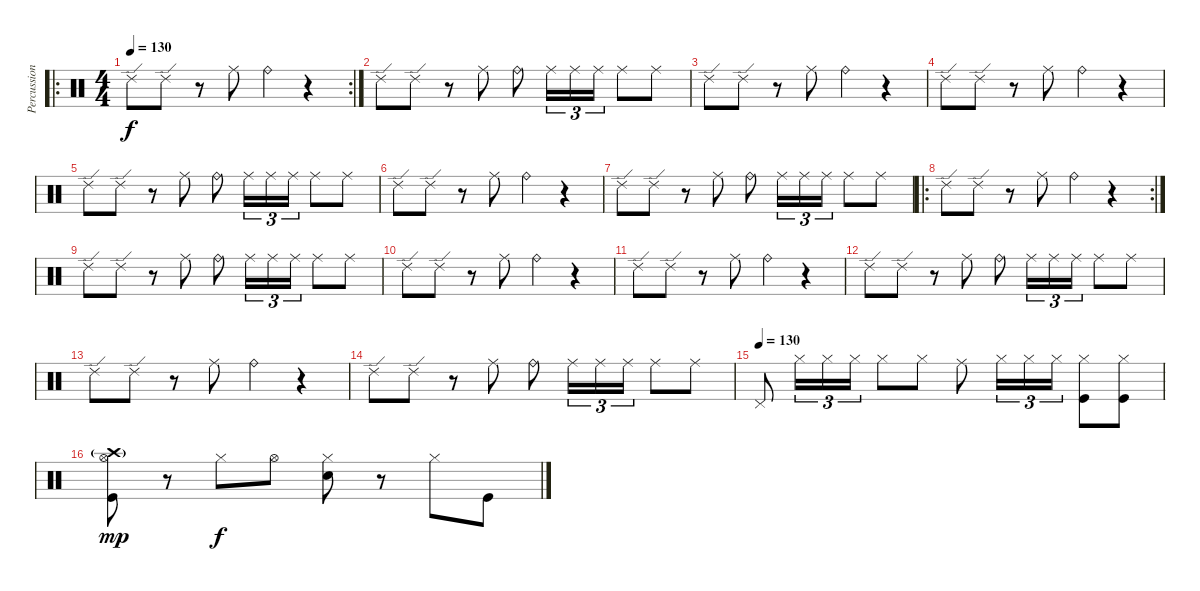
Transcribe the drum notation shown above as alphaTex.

\track ("Percussion" "Percussion") {instrument percussion}
\staff {score}
\articulation defaults
\ro
\rc 2
\ts (4 4)
\tempo 130
\tempo 115
\tempo 130
\clef neutral
\ks c "Ride (edge) 2".8{dy f} "Ride (edge) 2".8
r.8 "Ride (middle)".8 "Ride (bell)".4 r.4 |
"Ride (edge) 2".8 "Ride (edge) 2".8 r.8 "Ride (middle)".8 "Ride (bell)".8 "Ride (middle)".16{tu (3 2)} "Ride (middle)".16{tu (3 2)} "Ride (middle)".16{tu (3 2)} "Ride (middle)".8 "Ride (middle)".8 |
"Ride (edge) 2".8 "Ride (edge) 2".8 r.8 "Ride (middle)".8 "Ride (bell)".4 r.4 |
"Ride (edge) 2".8 "Ride (edge) 2".8 r.8 "Ride (middle)".8 "Ride (bell)".4 r.4 |
"Ride (edge) 2".8 "Ride (edge) 2".8 r.8 "Ride (middle)".8 "Ride (bell)".8 "Ride (middle)".16{tu (3 2)} "Ride (middle)".16{tu (3 2)} "Ride (middle)".16{tu (3 2)} "Ride (middle)".8 "Ride (middle)".8 |
"Ride (edge) 2".8 "Ride (edge) 2".8 r.8 "Ride (middle)".8 "Ride (bell)".4 r.4 |
"Ride (edge) 2".8 "Ride (edge) 2".8 r.8 "Ride (middle)".8 "Ride (bell)".8 "Ride (middle)".16{tu (3 2)} "Ride (middle)".16{tu (3 2)} "Ride (middle)".16{tu (3 2)} "Ride (middle)".8 "Ride (middle)".8 |
\ro
\rc 2 "Ride (edge) 2".8 "Ride (edge) 2".8
r.8 "Ride (middle)".8 "Ride (bell)".4 r.4 |
"Ride (edge) 2".8 "Ride (edge) 2".8 r.8 "Ride (middle)".8 "Ride (bell)".8 "Ride (middle)".16{tu (3 2)} "Ride (middle)".16{tu (3 2)} "Ride (middle)".16{tu (3 2)} "Ride (middle)".8 "Ride (middle)".8 |
"Ride (edge) 2".8 "Ride (edge) 2".8 r.8 "Ride (middle)".8 "Ride (bell)".4 r.4 |
"Ride (edge) 2".8 "Ride (edge) 2".8 r.8 "Ride (middle)".8 "Ride (bell)".4 r.4 |
"Ride (edge) 2".8 "Ride (edge) 2".8 r.8 "Ride (middle)".8 "Ride (bell)".8 "Ride (middle)".16{tu (3 2)} "Ride (middle)".16{tu (3 2)} "Ride (middle)".16{tu (3 2)} "Ride (middle)".8 "Ride (middle)".8 |
"Ride (edge) 2".8 "Ride (edge) 2".8 r.8 "Ride (middle)".8 "Ride (bell)".4 r.4 |
"Ride (edge) 2".8 "Ride (edge) 2".8 r.8 "Ride (middle)".8 "Ride (bell)".8 "Ride (middle)".16{tu (3 2)} "Ride (middle)".16{tu (3 2)} "Ride (middle)".16{tu (3 2)} "Ride (middle)".8 "Ride (middle)".8 |
\tempo (130)
"Pedal Hi-Hat (hit)".8 "Hi-Hat (closed)".16{tu (3 2)} "Hi-Hat (closed)".16{tu (3 2)} "Hi-Hat (closed)".16{tu (3 2)} "Hi-Hat (closed)".8 "Hi-Hat (closed)".8 "Ride (middle)".8 "Hi-Hat (closed)".16{tu (3 2)} "Hi-Hat (closed)".16{tu (3 2)} "Hi-Hat (closed)".16{tu (3 2)} ("Hi-Hat (closed)" "Kick (hit)").8 ("Hi-Hat (closed)" "Kick (hit)").8 |
("Crash high (hit)"{g} "Hi-Hat (open)" "Kick (hit)").8{dy mp} r.8 "Hi-Hat (closed)".8{dy f} "Hi-Hat (open)".8 ("Hi-Hat (closed)" "Electric Snare (hit)").8 r.8 "Hi-Hat (closed)".8 "Kick (hit)".8
